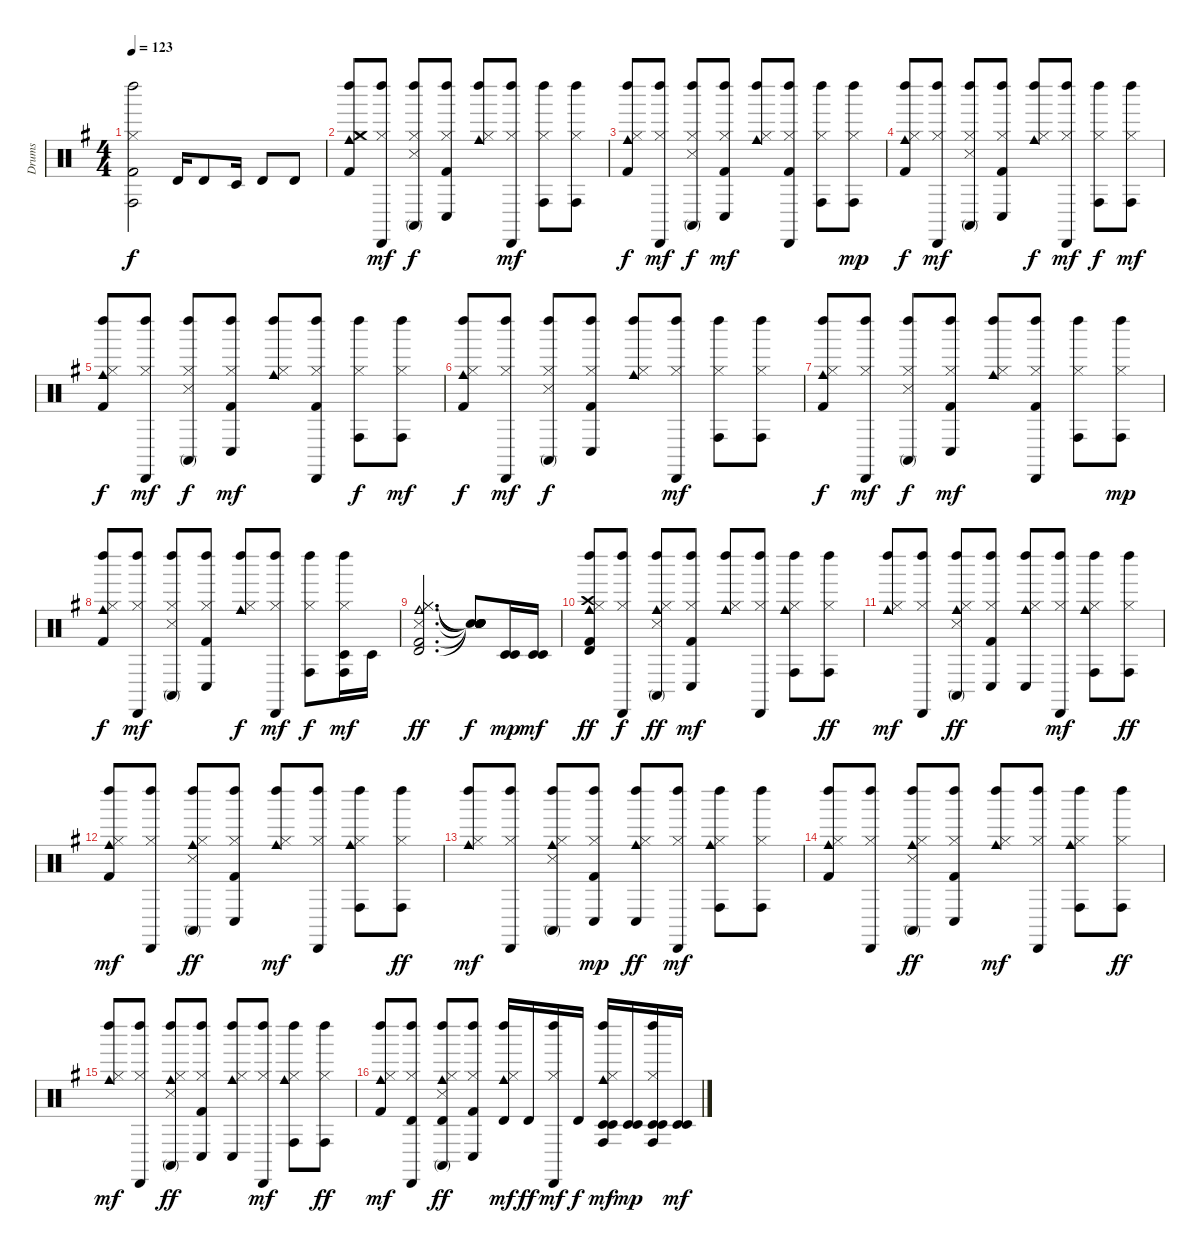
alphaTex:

\track ("Drums" "Drums") {instrument percussion}
\staff {score}
\articulation defaults
\ts (4 4)
\tempo 123
\clef neutral
\ks g
("Kick (hit) 2" "Hi-Hat (closed)" "Conga high (hit)" "Left Maraca (hit)").2{dy f} "Timbale high (hit)".16 "Timbale high (hit)".8 "Timbale low (hit)".16 "Timbale high (hit)".8 "Timbale high (hit)".8 |
("Kick (hit) 2" "Hi-Hat (closed)" "Cowbell medium (hit)" "Crash medium (hit)" "Left Maraca (hit)").8 ("Hi-Hat (closed)" "Cabasa (hit)" "Left Maraca (hit)").8{dy mf} ("Snare (side stick) 3" "Hi-Hat (closed)" "Conga high (mute)" "Left Maraca (hit)").8{dy f} ("Kick (hit) 2" "Hi-Hat (closed)" "Conga low (hit)" "Left Maraca (hit)").8 ("Hi-Hat (closed)" "Cowbell medium (hit)" "Left Maraca (hit)").8 ("Hi-Hat (closed)" "Cabasa (hit)" "Left Maraca (hit)").8{dy mf} ("Hi-Hat (closed)" "Conga high (hit)" "Left Maraca (hit)").8 ("Hi-Hat (closed)" "Conga high (hit)" "Left Maraca (hit)").8 |
("Kick (hit) 2" "Hi-Hat (closed)" "Cowbell medium (hit)" "Left Maraca (hit)").8{dy f} ("Hi-Hat (closed)" "Cabasa (hit)" "Left Maraca (hit)").8{dy mf} ("Snare (side stick) 3" "Hi-Hat (closed)" "Conga high (mute)" "Left Maraca (hit)").8{dy f} ("Kick (hit) 2" "Hi-Hat (closed)" "Conga low (hit)" "Left Maraca (hit)").8{dy mf} ("Hi-Hat (closed)" "Cowbell medium (hit)" "Left Maraca (hit)").8 ("Kick (hit) 2" "Hi-Hat (closed)" "Cabasa (hit)" "Left Maraca (hit)").8 ("Hi-Hat (closed)" "Conga high (hit)" "Left Maraca (hit)").8 ("Hi-Hat (closed)" "Conga high (hit)" "Left Maraca (hit)").8{dy mp} |
("Kick (hit) 2" "Hi-Hat (closed)" "Cowbell medium (hit)" "Left Maraca (hit)").8{dy f} ("Hi-Hat (closed)" "Cabasa (hit)" "Left Maraca (hit)").8{dy mf} ("Snare (side stick) 3" "Hi-Hat (closed)" "Conga high (mute)" "Left Maraca (hit)").8 ("Kick (hit) 2" "Hi-Hat (closed)" "Conga low (hit)" "Left Maraca (hit)").8 ("Hi-Hat (closed)" "Cowbell medium (hit)" "Left Maraca (hit)").8{dy f} ("Hi-Hat (closed)" "Cabasa (hit)" "Left Maraca (hit)").8{dy mf} ("Hi-Hat (closed)" "Conga high (hit)" "Left Maraca (hit)").8{dy f} ("Hi-Hat (closed)" "Conga high (hit)" "Left Maraca (hit)").8{dy mf} |
("Kick (hit) 2" "Hi-Hat (closed)" "Cowbell medium (hit)" "Left Maraca (hit)").8{dy f} ("Hi-Hat (closed)" "Cabasa (hit)" "Left Maraca (hit)").8{dy mf} ("Snare (side stick) 3" "Hi-Hat (closed)" "Conga high (mute)" "Left Maraca (hit)").8{dy f} ("Kick (hit) 2" "Hi-Hat (closed)" "Conga low (hit)" "Left Maraca (hit)").8{dy mf} ("Hi-Hat (closed)" "Cowbell medium (hit)" "Left Maraca (hit)").8 ("Kick (hit) 2" "Hi-Hat (closed)" "Cabasa (hit)" "Left Maraca (hit)").8 ("Hi-Hat (closed)" "Conga high (hit)" "Left Maraca (hit)").8{dy f} ("Hi-Hat (closed)" "Conga high (hit)" "Left Maraca (hit)").8{dy mf} |
("Kick (hit) 2" "Hi-Hat (closed)" "Cowbell medium (hit)" "Left Maraca (hit)").8{dy f} ("Hi-Hat (closed)" "Cabasa (hit)" "Left Maraca (hit)").8{dy mf} ("Snare (side stick) 3" "Hi-Hat (closed)" "Conga high (mute)" "Left Maraca (hit)").8{dy f} ("Kick (hit) 2" "Hi-Hat (closed)" "Conga low (hit)" "Left Maraca (hit)").8 ("Hi-Hat (closed)" "Cowbell medium (hit)" "Left Maraca (hit)").8 ("Hi-Hat (closed)" "Cabasa (hit)" "Left Maraca (hit)").8{dy mf} ("Hi-Hat (closed)" "Conga high (hit)" "Left Maraca (hit)").8 ("Hi-Hat (closed)" "Conga high (hit)" "Left Maraca (hit)").8 |
("Kick (hit) 2" "Hi-Hat (closed)" "Cowbell medium (hit)" "Left Maraca (hit)").8{dy f} ("Hi-Hat (closed)" "Cabasa (hit)" "Left Maraca (hit)").8{dy mf} ("Snare (side stick) 3" "Hi-Hat (closed)" "Conga high (mute)" "Left Maraca (hit)").8{dy f} ("Kick (hit) 2" "Hi-Hat (closed)" "Conga low (hit)" "Left Maraca (hit)").8{dy mf} ("Hi-Hat (closed)" "Cowbell medium (hit)" "Left Maraca (hit)").8 ("Kick (hit) 2" "Hi-Hat (closed)" "Cabasa (hit)" "Left Maraca (hit)").8 ("Hi-Hat (closed)" "Conga high (hit)" "Left Maraca (hit)").8 ("Hi-Hat (closed)" "Conga high (hit)" "Left Maraca (hit)").8{dy mp} |
("Kick (hit) 2" "Hi-Hat (closed)" "Cowbell medium (hit)" "Left Maraca (hit)").8{dy f} ("Hi-Hat (closed)" "Cabasa (hit)" "Left Maraca (hit)").8{dy mf} ("Snare (side stick) 3" "Hi-Hat (closed)" "Conga high (mute)" "Left Maraca (hit)").8 ("Kick (hit) 2" "Hi-Hat (closed)" "Conga low (hit)" "Left Maraca (hit)").8 ("Hi-Hat (closed)" "Cowbell medium (hit)" "Left Maraca (hit)").8{dy f} ("Hi-Hat (closed)" "Cabasa (hit)" "Left Maraca (hit)").8{dy mf} ("Hi-Hat (closed)" "Conga high (hit)" "Left Maraca (hit)").8{dy f} ("Hi-Hat (closed)" "Conga high (hit)" "Timbale low (hit)" "Left Maraca (hit)").16{dy mf} "Timbale low (hit)".16 |
("Kick (hit) 2" "Snare (side stick) 3" "Hi-Hat (closed)" "Hi-Hat (closed)" "Cowbell medium (hit)" "Timbale high (hit)").2{d dy ff} ("Snare (hit)"{t} "Snare (hit)"{t} "Snare (hit)"{t} "Snare (hit)"{t} "Snare (hit)"{t} "Snare (hit)"{t}).8{dy f} ("Timbale low (hit)" "Timbale low (hit)").16{dy mp} ("Timbale low (hit)" "Timbale low (hit)").16{dy mf} |
("Kick (hit) 2" "Hi-Hat (closed)" "Crash high (hit)" "Cowbell medium (hit)" "Timbale high (hit)" "Left Maraca (hit)").8{dy ff} ("Hi-Hat (closed)" "Cabasa (hit)" "Left Maraca (hit)").8{dy f} ("Snare (side stick) 3" "Hi-Hat (closed)" "Cowbell medium (hit)" "Conga high (mute)" "Left Maraca (hit)").8{dy ff} ("Kick (hit) 2" "Hi-Hat (closed)" "Conga low (hit)" "Left Maraca (hit)").8{dy mf} ("Hi-Hat (closed)" "Cowbell medium (hit)" "Left Maraca (hit)").8 ("Hi-Hat (closed)" "Cabasa (hit)" "Left Maraca (hit)").8 ("Hi-Hat (closed)" "Cowbell medium (hit)" "Conga high (hit)" "Left Maraca (hit)").8 ("Hi-Hat (closed)" "Conga high (hit)" "Left Maraca (hit)").8{dy ff} |
("Hi-Hat (closed)" "Cowbell medium (hit)" "Left Maraca (hit)").8{dy mf} ("Hi-Hat (closed)" "Cabasa (hit)" "Left Maraca (hit)").8 ("Snare (side stick) 3" "Hi-Hat (closed)" "Cowbell medium (hit)" "Conga high (mute)" "Left Maraca (hit)").8{dy ff} ("Kick (hit) 2" "Hi-Hat (closed)" "Conga low (hit)" "Left Maraca (hit)").8 ("Hi-Hat (closed)" "Cowbell medium (hit)" "Conga low (hit)" "Left Maraca (hit)").8 ("Hi-Hat (closed)" "Cabasa (hit)" "Left Maraca (hit)").8{dy mf} ("Hi-Hat (closed)" "Cowbell medium (hit)" "Conga high (hit)" "Left Maraca (hit)").8 ("Hi-Hat (closed)" "Conga high (hit)" "Left Maraca (hit)").8{dy ff} |
("Kick (hit) 2" "Hi-Hat (closed)" "Cowbell medium (hit)" "Left Maraca (hit)").8{dy mf} ("Hi-Hat (closed)" "Cabasa (hit)" "Left Maraca (hit)").8 ("Snare (side stick) 3" "Hi-Hat (closed)" "Cowbell medium (hit)" "Conga high (mute)" "Left Maraca (hit)").8{dy ff} ("Kick (hit) 2" "Hi-Hat (closed)" "Conga low (hit)" "Left Maraca (hit)").8 ("Hi-Hat (closed)" "Cowbell medium (hit)" "Left Maraca (hit)").8{dy mf} ("Hi-Hat (closed)" "Cabasa (hit)" "Left Maraca (hit)").8 ("Hi-Hat (closed)" "Cowbell medium (hit)" "Conga high (hit)" "Left Maraca (hit)").8 ("Hi-Hat (closed)" "Conga high (hit)" "Left Maraca (hit)").8{dy ff} |
("Hi-Hat (closed)" "Cowbell medium (hit)" "Left Maraca (hit)").8{dy mf} ("Hi-Hat (closed)" "Cabasa (hit)" "Left Maraca (hit)").8 ("Snare (side stick) 3" "Hi-Hat (closed)" "Cowbell medium (hit)" "Conga high (mute)" "Left Maraca (hit)").8 ("Kick (hit) 2" "Hi-Hat (closed)" "Conga low (hit)" "Left Maraca (hit)").8{dy mp} ("Hi-Hat (closed)" "Cowbell medium (hit)" "Conga low (hit)" "Left Maraca (hit)").8{dy ff} ("Hi-Hat (closed)" "Cabasa (hit)" "Left Maraca (hit)").8{dy mf} ("Hi-Hat (closed)" "Cowbell medium (hit)" "Conga high (hit)" "Left Maraca (hit)").8 ("Hi-Hat (closed)" "Conga high (hit)" "Left Maraca (hit)").8 |
("Kick (hit) 2" "Hi-Hat (closed)" "Cowbell medium (hit)" "Left Maraca (hit)").8 ("Hi-Hat (closed)" "Cabasa (hit)" "Left Maraca (hit)").8 ("Snare (side stick) 3" "Hi-Hat (closed)" "Cowbell medium (hit)" "Conga high (mute)" "Left Maraca (hit)").8{dy ff} ("Kick (hit) 2" "Hi-Hat (closed)" "Conga low (hit)" "Left Maraca (hit)").8 ("Hi-Hat (closed)" "Cowbell medium (hit)" "Left Maraca (hit)").8{dy mf} ("Hi-Hat (closed)" "Cabasa (hit)" "Left Maraca (hit)").8 ("Hi-Hat (closed)" "Cowbell medium (hit)" "Conga high (hit)" "Left Maraca (hit)").8 ("Hi-Hat (closed)" "Conga high (hit)" "Left Maraca (hit)").8{dy ff} |
("Hi-Hat (closed)" "Cowbell medium (hit)" "Left Maraca (hit)").8{dy mf} ("Hi-Hat (closed)" "Cabasa (hit)" "Left Maraca (hit)").8 ("Snare (side stick) 3" "Hi-Hat (closed)" "Cowbell medium (hit)" "Conga high (mute)" "Left Maraca (hit)").8{dy ff} ("Kick (hit) 2" "Hi-Hat (closed)" "Conga low (hit)" "Left Maraca (hit)").8 ("Hi-Hat (closed)" "Cowbell medium (hit)" "Conga low (hit)" "Left Maraca (hit)").8 ("Hi-Hat (closed)" "Cabasa (hit)" "Left Maraca (hit)").8{dy mf} ("Hi-Hat (closed)" "Cowbell medium (hit)" "Conga high (hit)" "Left Maraca (hit)").8 ("Hi-Hat (closed)" "Conga high (hit)" "Left Maraca (hit)").8{dy ff} |
("Kick (hit) 2" "Hi-Hat (closed)" "Cowbell medium (hit)" "Left Maraca (hit)").8{dy mf} ("Hi-Hat (closed)" "Timbale high (hit)" "Cabasa (hit)" "Left Maraca (hit)").8 ("Snare (side stick) 3" "Hi-Hat (closed)" "Cowbell medium (hit)" "Conga high (mute)" "Timbale high (hit)" "Left Maraca (hit)").8{dy ff} ("Kick (hit) 2" "Hi-Hat (closed)" "Conga low (hit)" "Left Maraca (hit)").8 ("Hi-Hat (closed)" "Cowbell medium (hit)" "Timbale high (hit)" "Left Maraca (hit)").16{dy mf} "Timbale high (hit)".16{dy ff} ("Hi-Hat (closed)" "Cabasa (hit)" "Left Maraca (hit)").16{dy mf} "Timbale high (hit)".16{dy f} ("Hi-Hat (closed)" "Cowbell medium (hit)" "Conga high (hit)" "Timbale low (hit)" "Timbale low (hit)" "Left Maraca (hit)").16{dy mf} ("Timbale low (hit)" "Timbale low (hit)").16{dy mp} ("Hi-Hat (closed)" "Conga high (hit)" "Timbale low (hit)" "Timbale low (hit)" "Left Maraca (hit)").16 ("Timbale low (hit)" "Timbale low (hit)").16{dy mf}
